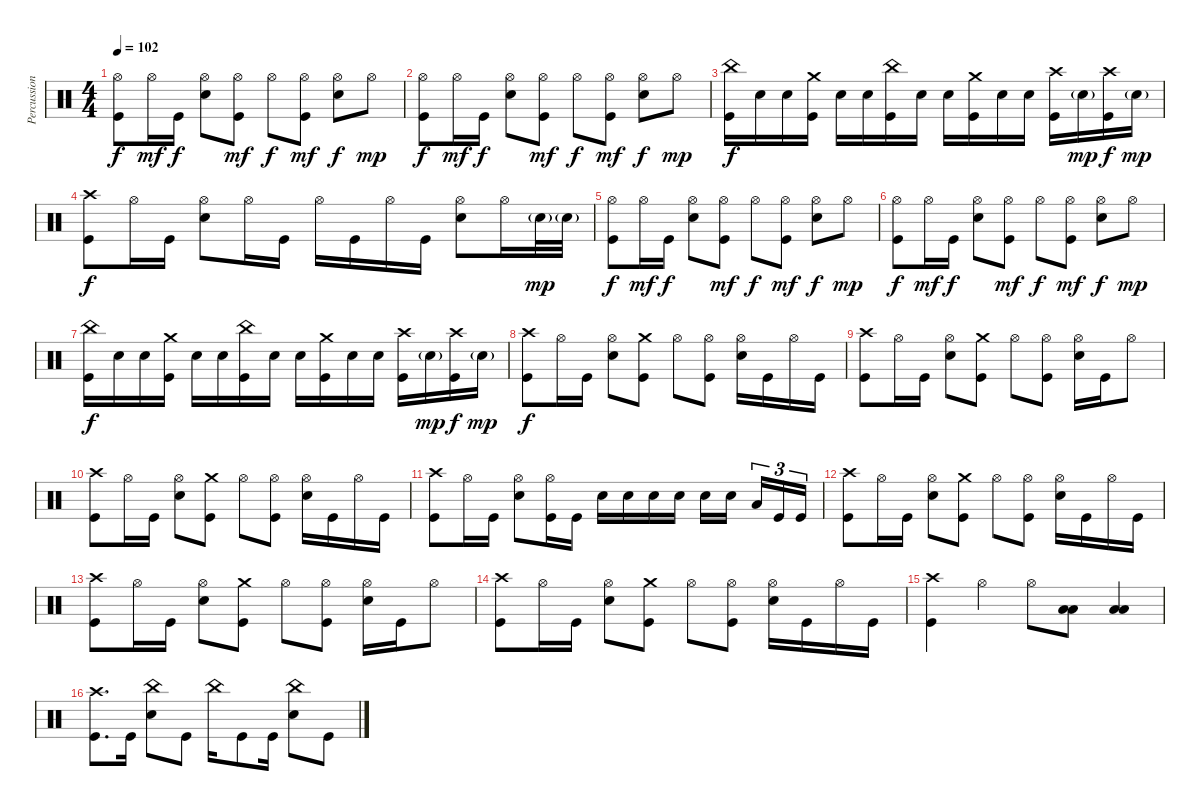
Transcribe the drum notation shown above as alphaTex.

\track ("Percussion" "Percussion") {instrument percussion}
\staff {score}
\articulation defaults
\ts (4 4)
\tempo 102
\clef neutral
\ks c
("Hi-Hat (open)" "Kick (hit)").8{dy f} "Hi-Hat (open)".16{dy mf} "Kick (hit)".16{dy f} ("Hi-Hat (open)" "Electric Snare (hit)").8 ("Hi-Hat (open)" "Kick (hit)").8{dy mf} "Hi-Hat (open)".8{dy f} ("Hi-Hat (open)" "Kick (hit)").8{dy mf} ("Hi-Hat (open)" "Electric Snare (hit)").8{dy f} "Hi-Hat (open)".8{dy mp} |
("Hi-Hat (open)" "Kick (hit)").8{dy f} "Hi-Hat (open)".16{dy mf} "Kick (hit)".16{dy f} ("Hi-Hat (open)" "Electric Snare (hit)").8 ("Hi-Hat (open)" "Kick (hit)").8{dy mf} "Hi-Hat (open)".8{dy f} ("Hi-Hat (open)" "Kick (hit)").8{dy mf} ("Hi-Hat (open)" "Electric Snare (hit)").8{dy f} "Hi-Hat (open)".8{dy mp} |
("China (hit)" "Kick (hit)").16{dy f} "Electric Snare (hit)".16 "Electric Snare (hit)".16 ("Crash medium (hit)" "Kick (hit)").16 "Electric Snare (hit)".16 "Electric Snare (hit)".16 ("China (hit)" "Kick (hit)").16 "Electric Snare (hit)".16 "Electric Snare (hit)".16 ("Crash medium (hit)" "Kick (hit)").16 "Electric Snare (hit)".16 "Electric Snare (hit)".16 ("Crash high (hit)" "Kick (hit)").16 "Electric Snare (hit)"{g}.16{dy mp} ("Crash high (hit)" "Kick (hit)").16{dy f} "Electric Snare (hit)"{g}.16{dy mp} |
("Crash high (hit)" "Kick (hit)").8{dy f} "Hi-Hat (open)".16 "Kick (hit)".16 ("Hi-Hat (open)" "Electric Snare (hit)").8 "Hi-Hat (open)".16 "Kick (hit)".16 "Hi-Hat (open)".16 "Kick (hit)".16 "Hi-Hat (open)".16 "Kick (hit)".16 ("Hi-Hat (open)" "Electric Snare (hit)").8 "Hi-Hat (open)".16 "Electric Snare (hit)"{g}.32{dy mp} "Electric Snare (hit)"{g}.32 |
("Hi-Hat (open)" "Kick (hit)").8{dy f} "Hi-Hat (open)".16{dy mf} "Kick (hit)".16{dy f} ("Hi-Hat (open)" "Electric Snare (hit)").8 ("Hi-Hat (open)" "Kick (hit)").8{dy mf} "Hi-Hat (open)".8{dy f} ("Hi-Hat (open)" "Kick (hit)").8{dy mf} ("Hi-Hat (open)" "Electric Snare (hit)").8{dy f} "Hi-Hat (open)".8{dy mp} |
("Hi-Hat (open)" "Kick (hit)").8{dy f} "Hi-Hat (open)".16{dy mf} "Kick (hit)".16{dy f} ("Hi-Hat (open)" "Electric Snare (hit)").8 ("Hi-Hat (open)" "Kick (hit)").8{dy mf} "Hi-Hat (open)".8{dy f} ("Hi-Hat (open)" "Kick (hit)").8{dy mf} ("Hi-Hat (open)" "Electric Snare (hit)").8{dy f} "Hi-Hat (open)".8{dy mp} |
("China (hit)" "Kick (hit)").16{dy f} "Electric Snare (hit)".16 "Electric Snare (hit)".16 ("Crash medium (hit)" "Kick (hit)").16 "Electric Snare (hit)".16 "Electric Snare (hit)".16 ("China (hit)" "Kick (hit)").16 "Electric Snare (hit)".16 "Electric Snare (hit)".16 ("Crash medium (hit)" "Kick (hit)").16 "Electric Snare (hit)".16 "Electric Snare (hit)".16 ("Crash high (hit)" "Kick (hit)").16 "Electric Snare (hit)"{g}.16{dy mp} ("Crash high (hit)" "Kick (hit)").16{dy f} "Electric Snare (hit)"{g}.16{dy mp} |
("Crash high (hit)" "Kick (hit)").8{dy f} "Hi-Hat (open)".16 "Kick (hit)".16 ("Hi-Hat (open)" "Electric Snare (hit)").8 ("Crash medium (hit)" "Kick (hit)").8 "Hi-Hat (open)".8 ("Hi-Hat (open)" "Kick (hit)").8 ("Hi-Hat (open)" "Electric Snare (hit)").16 "Kick (hit)".16 "Hi-Hat (open)".16 "Kick (hit)".16 |
("Crash high (hit)" "Kick (hit)").8 "Hi-Hat (open)".16 "Kick (hit)".16 ("Hi-Hat (open)" "Electric Snare (hit)").8 ("Crash medium (hit)" "Kick (hit)").8 "Hi-Hat (open)".8 ("Hi-Hat (open)" "Kick (hit)").8 ("Hi-Hat (open)" "Electric Snare (hit)").16 "Kick (hit)".16 "Hi-Hat (open)".8 |
("Crash high (hit)" "Kick (hit)").8 "Hi-Hat (open)".16 "Kick (hit)".16 ("Hi-Hat (open)" "Electric Snare (hit)").8 ("Crash medium (hit)" "Kick (hit)").8 "Hi-Hat (open)".8 ("Hi-Hat (open)" "Kick (hit)").8 ("Hi-Hat (open)" "Electric Snare (hit)").16 "Kick (hit)".16 "Hi-Hat (open)".16 "Kick (hit)".16 |
("Crash high (hit)" "Kick (hit)").8 "Hi-Hat (open)".16 "Kick (hit)".16 ("Hi-Hat (open)" "Electric Snare (hit)").8 ("Hi-Hat (open)" "Kick (hit)").16 "Kick (hit)".16 "Electric Snare (hit)".16 "Electric Snare (hit)".16 "Electric Snare (hit)".16 "Electric Snare (hit)".16 "Electric Snare (hit)".16 "Electric Snare (hit)".16{beam splitsecondary} "Low Floor Tom (hit)".16{tu (3 2)} "Kick (hit)".16{tu (3 2)} "Kick (hit)".16{tu (3 2)} |
("Crash high (hit)" "Kick (hit)").8 "Hi-Hat (open)".16 "Kick (hit)".16 ("Hi-Hat (open)" "Electric Snare (hit)").8 ("Crash medium (hit)" "Kick (hit)").8 "Hi-Hat (open)".8 ("Hi-Hat (open)" "Kick (hit)").8 ("Hi-Hat (open)" "Electric Snare (hit)").16 "Kick (hit)".16 "Hi-Hat (open)".16 "Kick (hit)".16 |
("Crash high (hit)" "Kick (hit)").8 "Hi-Hat (open)".16 "Kick (hit)".16 ("Hi-Hat (open)" "Electric Snare (hit)").8 ("Crash medium (hit)" "Kick (hit)").8 "Hi-Hat (open)".8 ("Hi-Hat (open)" "Kick (hit)").8 ("Hi-Hat (open)" "Electric Snare (hit)").16 "Kick (hit)".16 "Hi-Hat (open)".8 |
("Crash high (hit)" "Kick (hit)").8 "Hi-Hat (open)".16 "Kick (hit)".16 ("Hi-Hat (open)" "Electric Snare (hit)").8 ("Crash medium (hit)" "Kick (hit)").8 "Hi-Hat (open)".8 ("Hi-Hat (open)" "Kick (hit)").8 ("Hi-Hat (open)" "Electric Snare (hit)").16 "Kick (hit)".16 "Hi-Hat (open)".16 "Kick (hit)".16 |
("Crash high (hit)" "Kick (hit)").4 "Hi-Hat (open)".4 "Hi-Hat (open)".8 ("Low Tom (hit)" "Low Floor Tom (hit)").8 ("Low Tom (hit)" "Low Floor Tom (hit)").4 |
("Crash high (hit)" "Kick (hit)").8{d} "Kick (hit)".16 ("China (hit)" "Electric Snare (hit)").8 "Kick (hit)".8 "China (hit)".16 "Kick (hit)".8 "Kick (hit)".16 ("China (hit)" "Electric Snare (hit)").8 "Kick (hit)".8
